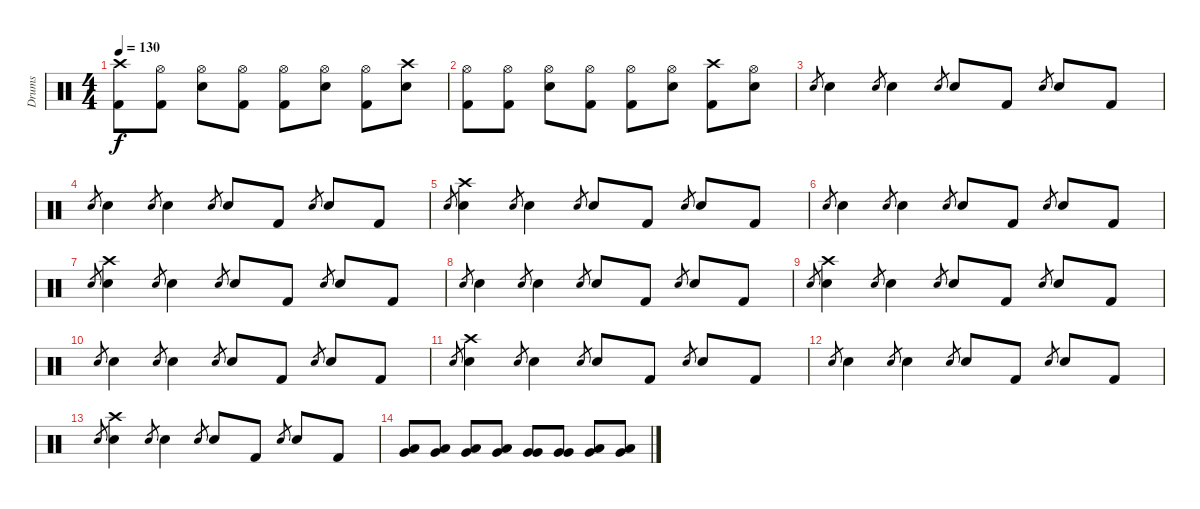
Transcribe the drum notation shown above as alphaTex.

\track ("Drums" "Drums") {instrument percussion}
\staff {score}
\articulation defaults
\ts (4 4)
\tempo 130
\clef neutral
\ks c
("Crash high (hit)" "Kick (hit) 2").8{dy f} ("Hi-Hat (open)" "Kick (hit) 2").8 ("Hi-Hat (open)" "Electric Snare (hit)").8 ("Hi-Hat (open)" "Kick (hit) 2").8 ("Hi-Hat (open)" "Kick (hit) 2").8 ("Hi-Hat (open)" "Electric Snare (hit)").8 ("Hi-Hat (open)" "Kick (hit) 2").8 ("Crash high (hit)" "Electric Snare (hit)").8 |
("Hi-Hat (open)" "Kick (hit) 2").8 ("Hi-Hat (open)" "Kick (hit) 2").8 ("Hi-Hat (open)" "Electric Snare (hit)").8 ("Hi-Hat (open)" "Kick (hit) 2").8 ("Hi-Hat (open)" "Kick (hit) 2").8 ("Hi-Hat (open)" "Electric Snare (hit)").8 ("Crash high (hit)" "Kick (hit) 2").8 ("Hi-Hat (open)" "Electric Snare (hit)").8 |
"Electric Snare (hit)".8{gr} "Electric Snare (hit)".4 "Electric Snare (hit)".8{gr} "Electric Snare (hit)".4 "Electric Snare (hit)".8{gr} "Electric Snare (hit)".8 "Kick (hit) 2".8 "Electric Snare (hit)".8{gr} "Electric Snare (hit)".8 "Kick (hit) 2".8 |
"Electric Snare (hit)".8{gr} "Electric Snare (hit)".4 "Electric Snare (hit)".8{gr} "Electric Snare (hit)".4 "Electric Snare (hit)".8{gr} "Electric Snare (hit)".8 "Kick (hit) 2".8 "Electric Snare (hit)".8{gr} "Electric Snare (hit)".8 "Kick (hit) 2".8 |
"Electric Snare (hit)".8{gr} ("Crash high (hit)" "Electric Snare (hit)").4 "Electric Snare (hit)".8{gr} "Electric Snare (hit)".4 "Electric Snare (hit)".8{gr} "Electric Snare (hit)".8 "Kick (hit) 2".8 "Electric Snare (hit)".8{gr} "Electric Snare (hit)".8 "Kick (hit) 2".8 |
"Electric Snare (hit)".8{gr} "Electric Snare (hit)".4 "Electric Snare (hit)".8{gr} "Electric Snare (hit)".4 "Electric Snare (hit)".8{gr} "Electric Snare (hit)".8 "Kick (hit) 2".8 "Electric Snare (hit)".8{gr} "Electric Snare (hit)".8 "Kick (hit) 2".8 |
"Electric Snare (hit)".8{gr} ("Crash high (hit)" "Electric Snare (hit)").4 "Electric Snare (hit)".8{gr} "Electric Snare (hit)".4 "Electric Snare (hit)".8{gr} "Electric Snare (hit)".8 "Kick (hit) 2".8 "Electric Snare (hit)".8{gr} "Electric Snare (hit)".8 "Kick (hit) 2".8 |
"Electric Snare (hit)".8{gr} "Electric Snare (hit)".4 "Electric Snare (hit)".8{gr} "Electric Snare (hit)".4 "Electric Snare (hit)".8{gr} "Electric Snare (hit)".8 "Kick (hit) 2".8 "Electric Snare (hit)".8{gr} "Electric Snare (hit)".8 "Kick (hit) 2".8 |
"Electric Snare (hit)".8{gr} ("Crash high (hit)" "Electric Snare (hit)").4 "Electric Snare (hit)".8{gr} "Electric Snare (hit)".4 "Electric Snare (hit)".8{gr} "Electric Snare (hit)".8 "Kick (hit) 2".8 "Electric Snare (hit)".8{gr} "Electric Snare (hit)".8 "Kick (hit) 2".8 |
"Electric Snare (hit)".8{gr} "Electric Snare (hit)".4 "Electric Snare (hit)".8{gr} "Electric Snare (hit)".4 "Electric Snare (hit)".8{gr} "Electric Snare (hit)".8 "Kick (hit) 2".8 "Electric Snare (hit)".8{gr} "Electric Snare (hit)".8 "Kick (hit) 2".8 |
"Electric Snare (hit)".8{gr} ("Crash high (hit)" "Electric Snare (hit)").4 "Electric Snare (hit)".8{gr} "Electric Snare (hit)".4 "Electric Snare (hit)".8{gr} "Electric Snare (hit)".8 "Kick (hit) 2".8 "Electric Snare (hit)".8{gr} "Electric Snare (hit)".8 "Kick (hit) 2".8 |
"Electric Snare (hit)".8{gr} "Electric Snare (hit)".4 "Electric Snare (hit)".8{gr} "Electric Snare (hit)".4 "Electric Snare (hit)".8{gr} "Electric Snare (hit)".8 "Kick (hit) 2".8 "Electric Snare (hit)".8{gr} "Electric Snare (hit)".8 "Kick (hit) 2".8 |
"Electric Snare (hit)".8{gr} ("Crash high (hit)" "Electric Snare (hit)").4 "Electric Snare (hit)".8{gr} "Electric Snare (hit)".4 "Electric Snare (hit)".8{gr} "Electric Snare (hit)".8 "Kick (hit) 2".8 "Electric Snare (hit)".8{gr} "Electric Snare (hit)".8 "Kick (hit) 2".8 |
("Low Tom (hit)" "Very Low Tom (hit)").8 ("Low Tom (hit)" "Very Low Tom (hit)").8 ("Low Tom (hit)" "Very Low Tom (hit)").8 ("Low Tom (hit)" "Very Low Tom (hit)").8 ("Very Low Tom (hit)" "Very Low Tom (hit)").8 ("Very Low Tom (hit)" "Very Low Tom (hit)").8 ("Low Floor Tom (hit)" "Very Low Tom (hit)").8 ("Low Floor Tom (hit)" "Very Low Tom (hit)").8
